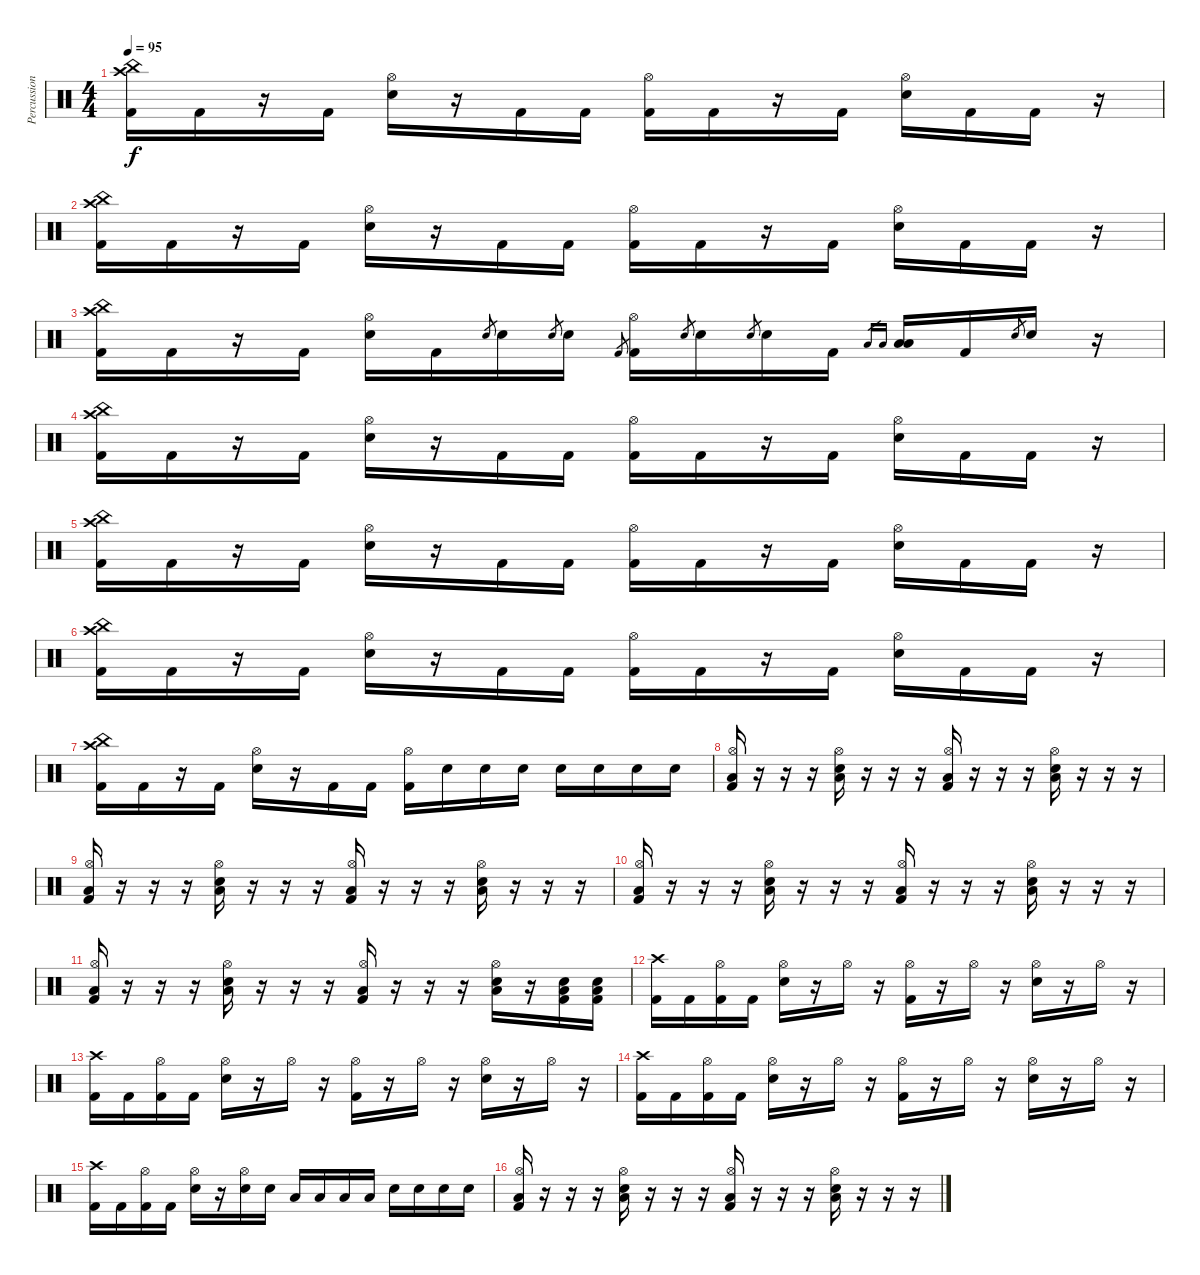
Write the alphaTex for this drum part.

\track ("Percussion" "Percussion") {instrument percussion}
\staff {score}
\articulation defaults
\ts (4 4)
\tempo 95
\clef neutral
\ks c
("China (hit)" "Crash high (hit)" "Kick (hit) 2").16{dy f} "Kick (hit) 2".16 r.16 "Kick (hit) 2".16 ("Hi-Hat (open)" "Electric Snare (hit)").16 r.16 "Kick (hit) 2".16 "Kick (hit) 2".16 ("Hi-Hat (open)" "Kick (hit) 2").16 "Kick (hit) 2".16 r.16 "Kick (hit) 2".16 ("Hi-Hat (open)" "Electric Snare (hit)").16 "Kick (hit) 2".16 "Kick (hit) 2".16 r.16 |
("China (hit)" "Crash high (hit)" "Kick (hit) 2").16 "Kick (hit) 2".16 r.16 "Kick (hit) 2".16 ("Hi-Hat (open)" "Electric Snare (hit)").16 r.16 "Kick (hit) 2".16 "Kick (hit) 2".16 ("Hi-Hat (open)" "Kick (hit) 2").16 "Kick (hit) 2".16 r.16 "Kick (hit) 2".16 ("Hi-Hat (open)" "Electric Snare (hit)").16 "Kick (hit) 2".16 "Kick (hit) 2".16 r.16 |
("China (hit)" "Crash high (hit)" "Kick (hit) 2").16 "Kick (hit) 2".16 r.16 "Kick (hit) 2".16 ("Hi-Hat (open)" "Electric Snare (hit)").16 "Kick (hit) 2".16 "Electric Snare (hit)".8{gr} "Electric Snare (hit)".16 "Electric Snare (hit)".8{gr} "Electric Snare (hit)".16 "Kick (hit) 2".8{gr} ("Hi-Hat (open)" "Kick (hit) 2").16 "Electric Snare (hit)".8{gr} "Electric Snare (hit)".16 "Electric Snare (hit)".8{gr} "Electric Snare (hit)".16 "Kick (hit) 2".16 "Low Floor Tom (hit)".16{gr} "Low Floor Tom (hit)".16{gr} ("Low Floor Tom (hit)" "Low Floor Tom (hit)").16 "Kick (hit) 2".16 "Electric Snare (hit)".8{gr} "Electric Snare (hit)".16 r.16 |
("China (hit)" "Crash high (hit)" "Kick (hit) 2").16 "Kick (hit) 2".16 r.16 "Kick (hit) 2".16 ("Hi-Hat (open)" "Electric Snare (hit)").16 r.16 "Kick (hit) 2".16 "Kick (hit) 2".16 ("Hi-Hat (open)" "Kick (hit) 2").16 "Kick (hit) 2".16 r.16 "Kick (hit) 2".16 ("Hi-Hat (open)" "Electric Snare (hit)").16 "Kick (hit) 2".16 "Kick (hit) 2".16 r.16 |
("China (hit)" "Crash high (hit)" "Kick (hit) 2").16 "Kick (hit) 2".16 r.16 "Kick (hit) 2".16 ("Hi-Hat (open)" "Electric Snare (hit)").16 r.16 "Kick (hit) 2".16 "Kick (hit) 2".16 ("Hi-Hat (open)" "Kick (hit) 2").16 "Kick (hit) 2".16 r.16 "Kick (hit) 2".16 ("Hi-Hat (open)" "Electric Snare (hit)").16 "Kick (hit) 2".16 "Kick (hit) 2".16 r.16 |
("China (hit)" "Crash high (hit)" "Kick (hit) 2").16 "Kick (hit) 2".16 r.16 "Kick (hit) 2".16 ("Hi-Hat (open)" "Electric Snare (hit)").16 r.16 "Kick (hit) 2".16 "Kick (hit) 2".16 ("Hi-Hat (open)" "Kick (hit) 2").16 "Kick (hit) 2".16 r.16 "Kick (hit) 2".16 ("Hi-Hat (open)" "Electric Snare (hit)").16 "Kick (hit) 2".16 "Kick (hit) 2".16 r.16 |
("China (hit)" "Crash high (hit)" "Kick (hit) 2").16 "Kick (hit) 2".16 r.16 "Kick (hit) 2".16 ("Hi-Hat (open)" "Electric Snare (hit)").16 r.16 "Kick (hit) 2".16 "Kick (hit) 2".16 ("Hi-Hat (open)" "Kick (hit) 2").16 "Electric Snare (hit)".16 "Electric Snare (hit)".16 "Electric Snare (hit)".16 "Electric Snare (hit)".16 "Electric Snare (hit)".16 "Electric Snare (hit)".16 "Electric Snare (hit)".16 |
("Hi-Hat (open)" "Low Floor Tom (hit)" "Kick (hit) 2").16 r.16 r.16 r.16 ("Hi-Hat (open)" "Low Floor Tom (hit)" "Electric Snare (hit)").16 r.16 r.16 r.16 ("Hi-Hat (open)" "Low Floor Tom (hit)" "Kick (hit) 2").16 r.16 r.16 r.16 ("Hi-Hat (open)" "Low Floor Tom (hit)" "Electric Snare (hit)").16 r.16 r.16 r.16 |
("Hi-Hat (open)" "Low Floor Tom (hit)" "Kick (hit) 2").16 r.16 r.16 r.16 ("Hi-Hat (open)" "Low Floor Tom (hit)" "Electric Snare (hit)").16 r.16 r.16 r.16 ("Hi-Hat (open)" "Low Floor Tom (hit)" "Kick (hit) 2").16 r.16 r.16 r.16 ("Hi-Hat (open)" "Low Floor Tom (hit)" "Electric Snare (hit)").16 r.16 r.16 r.16 |
("Hi-Hat (open)" "Low Floor Tom (hit)" "Kick (hit) 2").16 r.16 r.16 r.16 ("Hi-Hat (open)" "Low Floor Tom (hit)" "Electric Snare (hit)").16 r.16 r.16 r.16 ("Hi-Hat (open)" "Low Floor Tom (hit)" "Kick (hit) 2").16 r.16 r.16 r.16 ("Hi-Hat (open)" "Low Floor Tom (hit)" "Electric Snare (hit)").16 r.16 r.16 r.16 |
("Hi-Hat (open)" "Low Floor Tom (hit)" "Kick (hit) 2").16 r.16 r.16 r.16 ("Hi-Hat (open)" "Low Floor Tom (hit)" "Electric Snare (hit)").16 r.16 r.16 r.16 ("Hi-Hat (open)" "Low Floor Tom (hit)" "Kick (hit) 2").16 r.16 r.16 r.16 ("Hi-Hat (open)" "Low Floor Tom (hit)" "Electric Snare (hit)").16 r.16 ("Low Floor Tom (hit)" "Kick (hit) 2" "Electric Snare (hit)").16 ("Low Floor Tom (hit)" "Kick (hit) 2" "Electric Snare (hit)").16 |
("Crash high (hit)" "Kick (hit) 2").16 "Kick (hit) 2".16 ("Hi-Hat (open)" "Kick (hit) 2").16 "Kick (hit) 2".16 ("Hi-Hat (open)" "Electric Snare (hit)").16 r.16 "Hi-Hat (open)".16 r.16 ("Hi-Hat (open)" "Kick (hit) 2").16 r.16 "Hi-Hat (open)".16 r.16 ("Hi-Hat (open)" "Electric Snare (hit)").16 r.16 "Hi-Hat (open)".16 r.16 |
("Crash high (hit)" "Kick (hit) 2").16 "Kick (hit) 2".16 ("Hi-Hat (open)" "Kick (hit) 2").16 "Kick (hit) 2".16 ("Hi-Hat (open)" "Electric Snare (hit)").16 r.16 "Hi-Hat (open)".16 r.16 ("Hi-Hat (open)" "Kick (hit) 2").16 r.16 "Hi-Hat (open)".16 r.16 ("Hi-Hat (open)" "Electric Snare (hit)").16 r.16 "Hi-Hat (open)".16 r.16 |
("Crash high (hit)" "Kick (hit) 2").16 "Kick (hit) 2".16 ("Hi-Hat (open)" "Kick (hit) 2").16 "Kick (hit) 2".16 ("Hi-Hat (open)" "Electric Snare (hit)").16 r.16 "Hi-Hat (open)".16 r.16 ("Hi-Hat (open)" "Kick (hit) 2").16 r.16 "Hi-Hat (open)".16 r.16 ("Hi-Hat (open)" "Electric Snare (hit)").16 r.16 "Hi-Hat (open)".16 r.16 |
("Crash high (hit)" "Kick (hit) 2").16 "Kick (hit) 2".16 ("Hi-Hat (open)" "Kick (hit) 2").16 "Kick (hit) 2".16 ("Hi-Hat (open)" "Electric Snare (hit)").16 r.16 ("Hi-Hat (open)" "Electric Snare (hit)").16 "Electric Snare (hit)".16 "Low Tom (hit)".16 "Low Tom (hit)".16 "Low Tom (hit)".16 "Low Tom (hit)".16 "Electric Snare (hit)".16 "Electric Snare (hit)".16 "Electric Snare (hit)".16 "Electric Snare (hit)".16 |
("Hi-Hat (open)" "Low Floor Tom (hit)" "Kick (hit) 2").16 r.16 r.16 r.16 ("Hi-Hat (open)" "Low Floor Tom (hit)" "Electric Snare (hit)").16 r.16 r.16 r.16 ("Hi-Hat (open)" "Low Floor Tom (hit)" "Kick (hit) 2").16 r.16 r.16 r.16 ("Hi-Hat (open)" "Low Floor Tom (hit)" "Electric Snare (hit)").16 r.16 r.16 r.16
